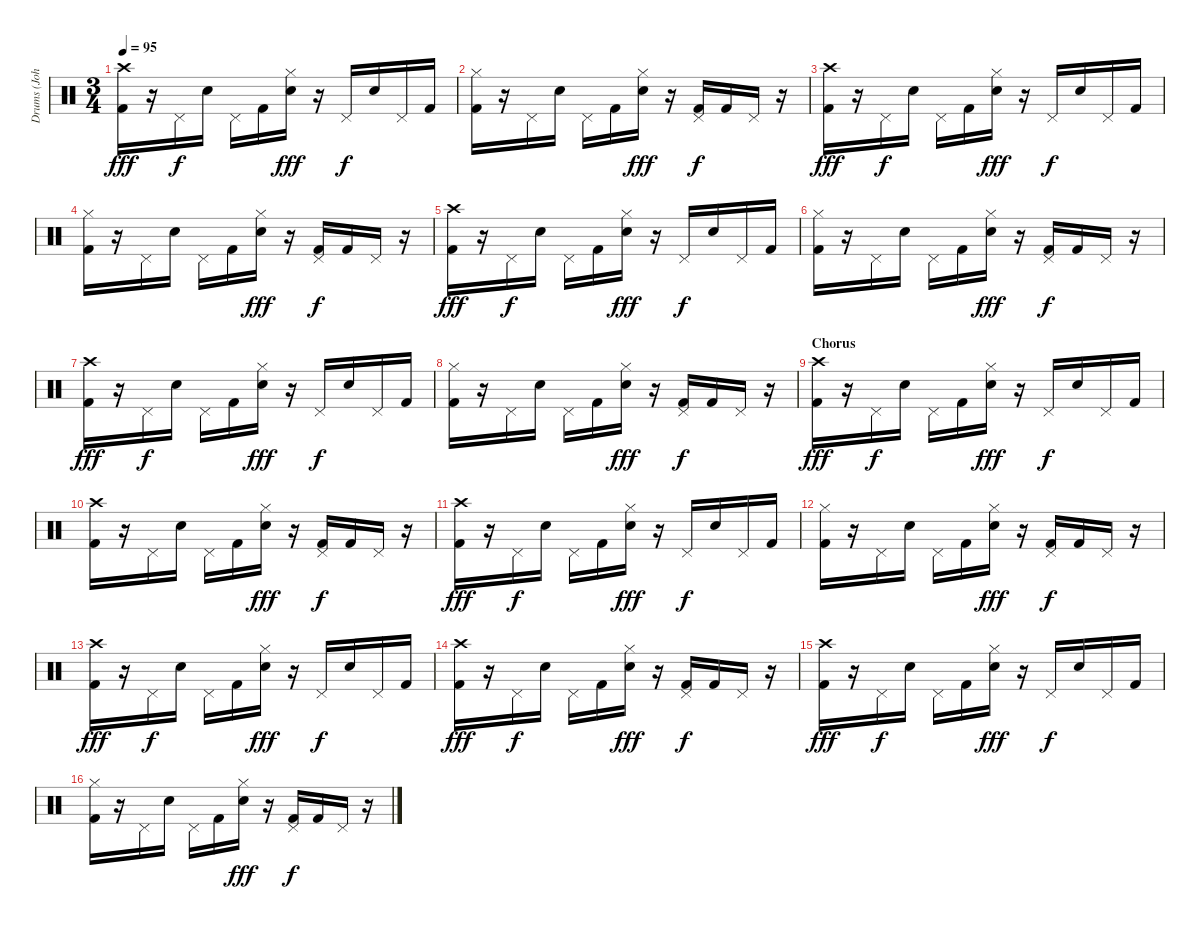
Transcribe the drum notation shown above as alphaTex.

\track ("Drums (John Otto)" "Drums (Joh") {instrument percussion}
\staff {score}
\articulation defaults
\ts (3 4)
\tempo 95
\clef neutral
\ks c
("Crash high (hit)" "Kick (hit) 2").16{dy fff} r.16 "Pedal Hi-Hat (hit)".16{dy f} "Electric Snare (hit)".16 "Pedal Hi-Hat (hit)".16 "Kick (hit) 2".16 ("Hi-Hat (closed)" "Electric Snare (hit)").16{dy fff} r.16 "Pedal Hi-Hat (hit)".16{dy f} "Electric Snare (hit)".16 "Pedal Hi-Hat (hit)".16 "Kick (hit) 2".16 |
("Hi-Hat (closed)" "Kick (hit) 2").16 r.16 "Pedal Hi-Hat (hit)".16 "Electric Snare (hit)".16 "Pedal Hi-Hat (hit)".16 "Kick (hit) 2".16 ("Hi-Hat (closed)" "Electric Snare (hit)").16{dy fff} r.16 ("Pedal Hi-Hat (hit)" "Kick (hit) 2").16{dy f} "Kick (hit) 2".16 "Pedal Hi-Hat (hit)".16 r.16 |
("Crash high (hit)" "Kick (hit) 2").16{dy fff} r.16 "Pedal Hi-Hat (hit)".16{dy f} "Electric Snare (hit)".16 "Pedal Hi-Hat (hit)".16 "Kick (hit) 2".16 ("Hi-Hat (closed)" "Electric Snare (hit)").16{dy fff} r.16 "Pedal Hi-Hat (hit)".16{dy f} "Electric Snare (hit)".16 "Pedal Hi-Hat (hit)".16 "Kick (hit) 2".16 |
("Hi-Hat (closed)" "Kick (hit) 2").16 r.16 "Pedal Hi-Hat (hit)".16 "Electric Snare (hit)".16 "Pedal Hi-Hat (hit)".16 "Kick (hit) 2".16 ("Hi-Hat (closed)" "Electric Snare (hit)").16{dy fff} r.16 ("Pedal Hi-Hat (hit)" "Kick (hit) 2").16{dy f} "Kick (hit) 2".16 "Pedal Hi-Hat (hit)".16 r.16 |
("Crash high (hit)" "Kick (hit) 2").16{dy fff} r.16 "Pedal Hi-Hat (hit)".16{dy f} "Electric Snare (hit)".16 "Pedal Hi-Hat (hit)".16 "Kick (hit) 2".16 ("Hi-Hat (closed)" "Electric Snare (hit)").16{dy fff} r.16 "Pedal Hi-Hat (hit)".16{dy f} "Electric Snare (hit)".16 "Pedal Hi-Hat (hit)".16 "Kick (hit) 2".16 |
("Hi-Hat (closed)" "Kick (hit) 2").16 r.16 "Pedal Hi-Hat (hit)".16 "Electric Snare (hit)".16 "Pedal Hi-Hat (hit)".16 "Kick (hit) 2".16 ("Hi-Hat (closed)" "Electric Snare (hit)").16{dy fff} r.16 ("Pedal Hi-Hat (hit)" "Kick (hit) 2").16{dy f} "Kick (hit) 2".16 "Pedal Hi-Hat (hit)".16 r.16 |
("Crash high (hit)" "Kick (hit) 2").16{dy fff} r.16 "Pedal Hi-Hat (hit)".16{dy f} "Electric Snare (hit)".16 "Pedal Hi-Hat (hit)".16 "Kick (hit) 2".16 ("Hi-Hat (closed)" "Electric Snare (hit)").16{dy fff} r.16 "Pedal Hi-Hat (hit)".16{dy f} "Electric Snare (hit)".16 "Pedal Hi-Hat (hit)".16 "Kick (hit) 2".16 |
("Hi-Hat (closed)" "Kick (hit) 2").16 r.16 "Pedal Hi-Hat (hit)".16 "Electric Snare (hit)".16 "Pedal Hi-Hat (hit)".16 "Kick (hit) 2".16 ("Hi-Hat (closed)" "Electric Snare (hit)").16{dy fff} r.16 ("Pedal Hi-Hat (hit)" "Kick (hit) 2").16{dy f} "Kick (hit) 2".16 "Pedal Hi-Hat (hit)".16 r.16 |
\section ("" "Chorus")
("Crash high (hit)" "Kick (hit) 2").16{dy fff} r.16 "Pedal Hi-Hat (hit)".16{dy f} "Electric Snare (hit)".16 "Pedal Hi-Hat (hit)".16 "Kick (hit) 2".16 ("Hi-Hat (closed)" "Electric Snare (hit)").16{dy fff} r.16 "Pedal Hi-Hat (hit)".16{dy f} "Electric Snare (hit)".16 "Pedal Hi-Hat (hit)".16 "Kick (hit) 2".16 |
("Crash high (hit)" "Kick (hit) 2").16 r.16 "Pedal Hi-Hat (hit)".16 "Electric Snare (hit)".16 "Pedal Hi-Hat (hit)".16 "Kick (hit) 2".16 ("Hi-Hat (closed)" "Electric Snare (hit)").16{dy fff} r.16 ("Pedal Hi-Hat (hit)" "Kick (hit) 2").16{dy f} "Kick (hit) 2".16 "Pedal Hi-Hat (hit)".16 r.16 |
("Crash high (hit)" "Kick (hit) 2").16{dy fff} r.16 "Pedal Hi-Hat (hit)".16{dy f} "Electric Snare (hit)".16 "Pedal Hi-Hat (hit)".16 "Kick (hit) 2".16 ("Hi-Hat (closed)" "Electric Snare (hit)").16{dy fff} r.16 "Pedal Hi-Hat (hit)".16{dy f} "Electric Snare (hit)".16 "Pedal Hi-Hat (hit)".16 "Kick (hit) 2".16 |
("Hi-Hat (closed)" "Kick (hit) 2").16 r.16 "Pedal Hi-Hat (hit)".16 "Electric Snare (hit)".16 "Pedal Hi-Hat (hit)".16 "Kick (hit) 2".16 ("Hi-Hat (closed)" "Electric Snare (hit)").16{dy fff} r.16 ("Pedal Hi-Hat (hit)" "Kick (hit) 2").16{dy f} "Kick (hit) 2".16 "Pedal Hi-Hat (hit)".16 r.16 |
("Crash high (hit)" "Kick (hit) 2").16{dy fff} r.16 "Pedal Hi-Hat (hit)".16{dy f} "Electric Snare (hit)".16 "Pedal Hi-Hat (hit)".16 "Kick (hit) 2".16 ("Hi-Hat (closed)" "Electric Snare (hit)").16{dy fff} r.16 "Pedal Hi-Hat (hit)".16{dy f} "Electric Snare (hit)".16 "Pedal Hi-Hat (hit)".16 "Kick (hit) 2".16 |
("Crash high (hit)" "Kick (hit) 2").16{dy fff} r.16 "Pedal Hi-Hat (hit)".16{dy f} "Electric Snare (hit)".16 "Pedal Hi-Hat (hit)".16 "Kick (hit) 2".16 ("Hi-Hat (closed)" "Electric Snare (hit)").16{dy fff} r.16 ("Pedal Hi-Hat (hit)" "Kick (hit) 2").16{dy f} "Kick (hit) 2".16 "Pedal Hi-Hat (hit)".16 r.16 |
("Crash high (hit)" "Kick (hit) 2").16{dy fff} r.16 "Pedal Hi-Hat (hit)".16{dy f} "Electric Snare (hit)".16 "Pedal Hi-Hat (hit)".16 "Kick (hit) 2".16 ("Hi-Hat (closed)" "Electric Snare (hit)").16{dy fff} r.16 "Pedal Hi-Hat (hit)".16{dy f} "Electric Snare (hit)".16 "Pedal Hi-Hat (hit)".16 "Kick (hit) 2".16 |
("Hi-Hat (closed)" "Kick (hit) 2").16 r.16 "Pedal Hi-Hat (hit)".16 "Electric Snare (hit)".16 "Pedal Hi-Hat (hit)".16 "Kick (hit) 2".16 ("Hi-Hat (closed)" "Electric Snare (hit)").16{dy fff} r.16 ("Pedal Hi-Hat (hit)" "Kick (hit) 2").16{dy f} "Kick (hit) 2".16 "Pedal Hi-Hat (hit)".16 r.16
